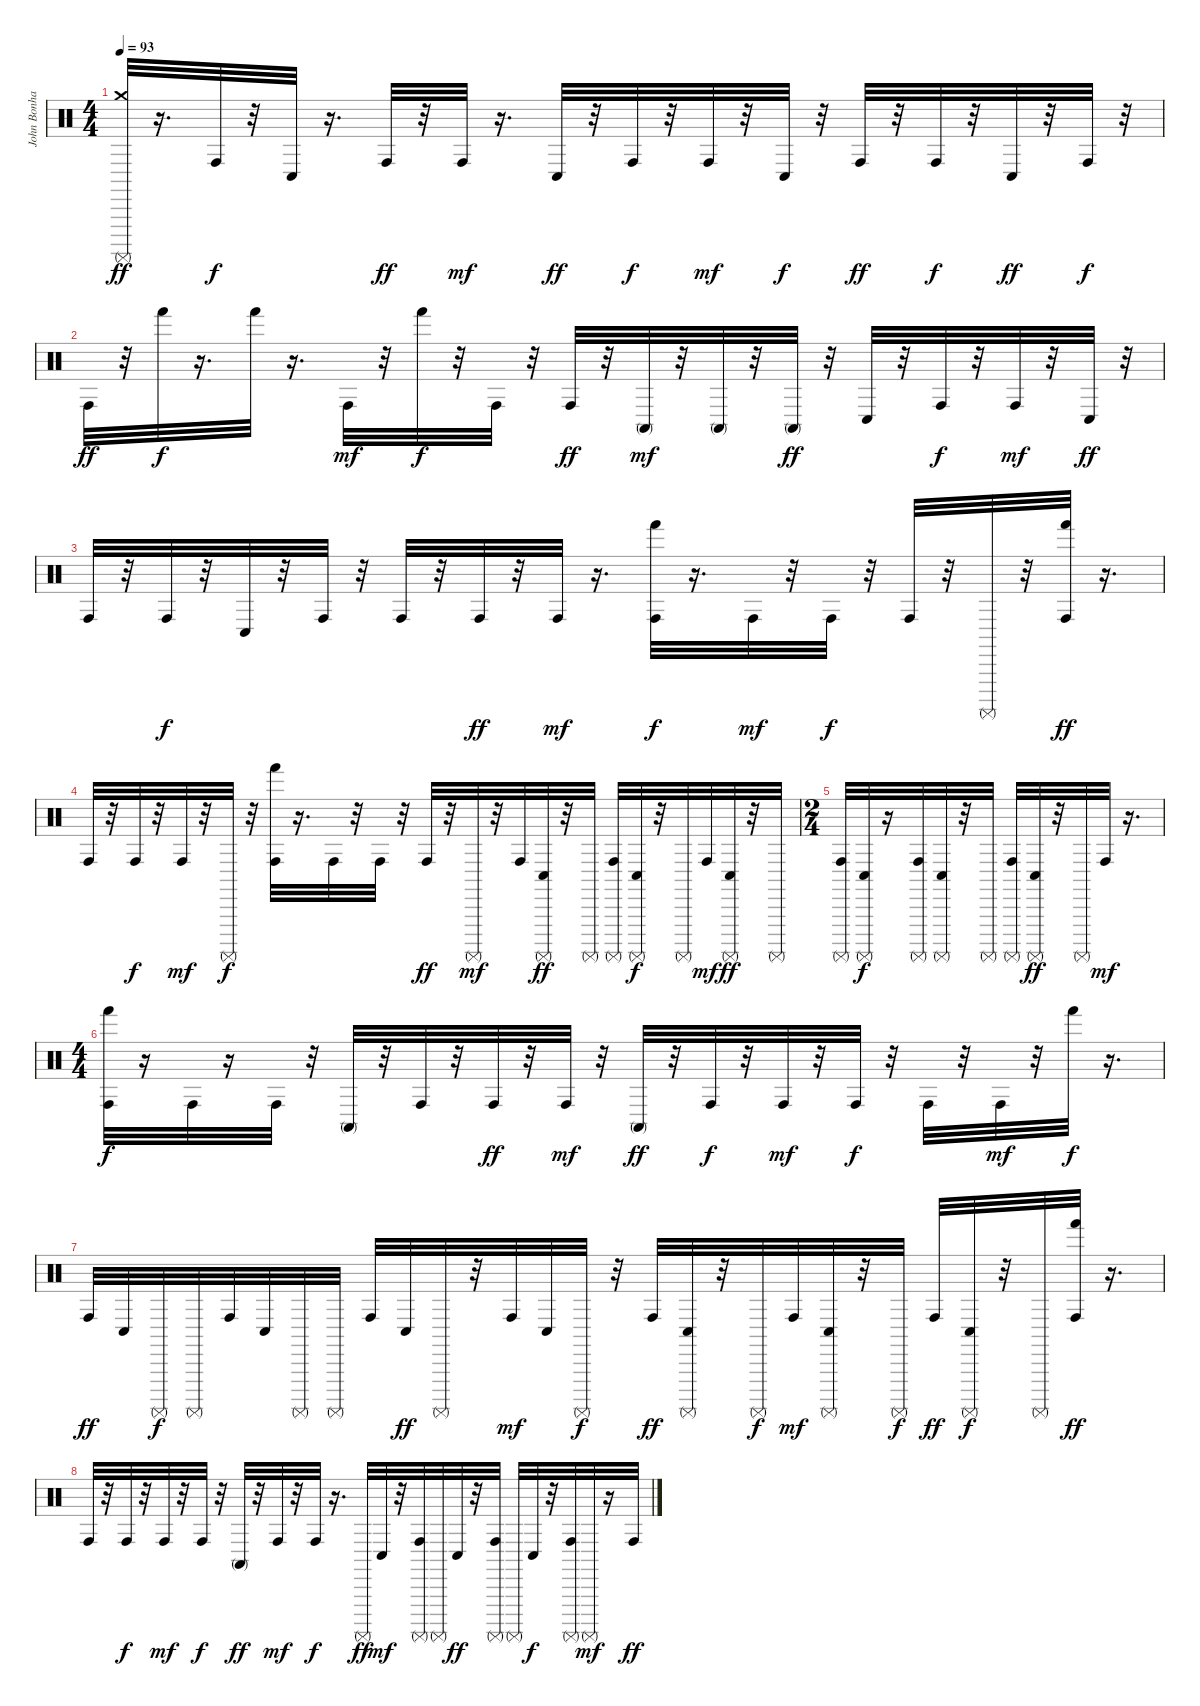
\track ("John Bonham" "John Bonha") {instrument percussion}
\staff {score}
\articulation defaults
\ts (4 4)
\tempo 93
\clef neutral
\ks c
("Surdo (mute)" "Crash medium (hit)").32{dy ff} r.16{d} "Conga high (hit)".32{dy f} r.32 "Conga low (hit)".32 r.16{d} "Conga high (hit)".32{dy ff} r.32 "Conga high (hit)".32{dy mf} r.16{d} "Conga low (hit)".32{dy ff} r.32 "Conga high (hit)".32{dy f} r.32 "Conga high (hit)".32{dy mf} r.32 "Conga low (hit)".32{dy f} r.32 "Conga high (hit)".32{dy ff} r.32 "Conga high (hit)".32{dy f} r.32 "Conga low (hit)".32{dy ff} r.32 "Conga high (hit)".32{dy f} r.32 |
"Conga high (hit)".32{dy ff} r.32 "Hand (hit)".32{dy f} r.16{d} "Hand (hit)".32 r.16{d} "Conga high (hit)".32{dy mf} r.32 "Hand (hit)".32{dy f} r.32 "Conga high (hit)".32 r.32 "Conga high (hit)".32{dy ff} r.32 "Conga high (mute)".32{dy mf} r.32 "Conga high (mute)".32 r.32 "Conga high (mute)".32{dy ff} r.32 "Conga low (hit)".32 r.32 "Conga high (hit)".32{dy f} r.32 "Conga high (hit)".32{dy mf} r.32 "Conga low (hit)".32{dy ff} r.32 |
"Conga high (hit)".32 r.32 "Conga high (hit)".32{dy f} r.32 "Conga low (hit)".32 r.32 "Conga high (hit)".32 r.32 "Conga high (hit)".32 r.32 "Conga high (hit)".32{dy ff} r.32 "Conga high (hit)".32{dy mf} r.16{d} ("Hand (hit)" "Conga high (hit)").32{dy f} r.16{d} "Conga high (hit)".32{dy mf} r.32 "Conga high (hit)".32{dy f} r.32 "Conga high (hit)".32 r.32 "Surdo (mute)".32 r.32 ("Hand (hit)" "Conga high (hit)").32{dy ff} r.16{d} |
"Conga high (hit)".32 r.32 "Conga high (hit)".32{dy f} r.32 "Conga high (hit)".32{dy mf} r.32 "Surdo (mute)".32{dy f} r.32 ("Hand (hit)" "Conga high (hit)").32 r.16{d} "Conga high (hit)".32 r.32 "Conga high (hit)".32 r.32 "Conga high (hit)".32{dy ff} r.32 "Surdo (mute)".32{dy mf} r.32 "Conga high (hit)".32 ("Conga low (hit)" "Surdo (mute)").32{dy ff} r.32 "Surdo (mute)".32 ("Conga high (hit)" "Surdo (mute)").32 ("Surdo (mute)" "Conga low (hit)").32{dy f} r.32 "Surdo (mute)".32 "Conga high (hit)".32{dy mf} ("Surdo (mute)" "Conga low (hit)").32{dy ff} r.32 "Surdo (mute)".32 |
\ts (2 4)
("Surdo (mute)" "Conga high (hit)").32 ("Conga low (hit)" "Surdo (mute)").32{dy f} r.16 ("Surdo (mute)" "Conga high (hit)").32 ("Conga low (hit)" "Surdo (mute)").32 r.32 "Surdo (mute)".32 ("Conga high (hit)" "Surdo (mute)").32 ("Surdo (mute)" "Conga low (hit)").32{dy ff} r.32 "Surdo (mute)".32 "Conga high (hit)".32{dy mf} r.16{d} |
\ts (4 4)
("Hand (hit)" "Conga high (hit)").32{dy f} r.16 "Conga high (hit)".32 r.16 "Conga high (hit)".32 r.32 "Conga high (mute)".32 r.32 "Conga high (hit)".32 r.32 "Conga high (hit)".32{dy ff} r.32 "Conga high (hit)".32{dy mf} r.32 "Conga high (mute)".32{dy ff} r.32 "Conga high (hit)".32{dy f} r.32 "Conga high (hit)".32{dy mf} r.32 "Conga high (hit)".32{dy f} r.32 "Conga high (hit)".32 r.32 "Conga high (hit)".32{dy mf} r.32 "Hand (hit)".32{dy f} r.16{d} |
"Conga high (hit)".32{dy ff} "Conga low (hit)".32 "Surdo (mute)".32{dy f} "Surdo (mute)".32 "Conga high (hit)".32 "Conga low (hit)".32 "Surdo (mute)".32 "Surdo (mute)".32 "Conga high (hit)".32 "Conga low (hit)".32{dy ff} "Surdo (mute)".32 r.32 "Conga high (hit)".32{dy mf} "Conga low (hit)".32 "Surdo (mute)".32{dy f} r.32 "Conga high (hit)".32{dy ff} ("Surdo (mute)" "Conga low (hit)").32 r.32 "Surdo (mute)".32{dy f} "Conga high (hit)".32{dy mf} ("Surdo (mute)" "Conga low (hit)").32 r.32 "Surdo (mute)".32{dy f} "Conga high (hit)".32{dy ff} ("Surdo (mute)" "Conga low (hit)").32{dy f} r.32 "Surdo (mute)".32 ("Hand (hit)" "Conga high (hit)").32{dy ff} r.16{d} |
"Conga high (hit)".32 r.32 "Conga high (hit)".32{dy f} r.32 "Conga high (hit)".32{dy mf} r.32 "Conga high (hit)".32{dy f} r.32 "Conga high (mute)".32{dy ff} r.32 "Conga high (hit)".32{dy mf} r.32 "Conga high (hit)".32{dy f} r.16{d} "Surdo (mute)".32{dy ff} "Conga low (hit)".32{dy mf} r.32 ("Surdo (mute)" "Conga high (hit)").32 "Surdo (mute)".32 "Conga low (hit)".32{dy ff} r.32 ("Surdo (mute)" "Conga high (hit)").32 "Surdo (mute)".32 "Conga low (hit)".32{dy f} r.32 ("Surdo (mute)" "Conga high (hit)").32 "Surdo (mute)".32{dy mf} r.16 "Conga high (hit)".32{dy ff}
